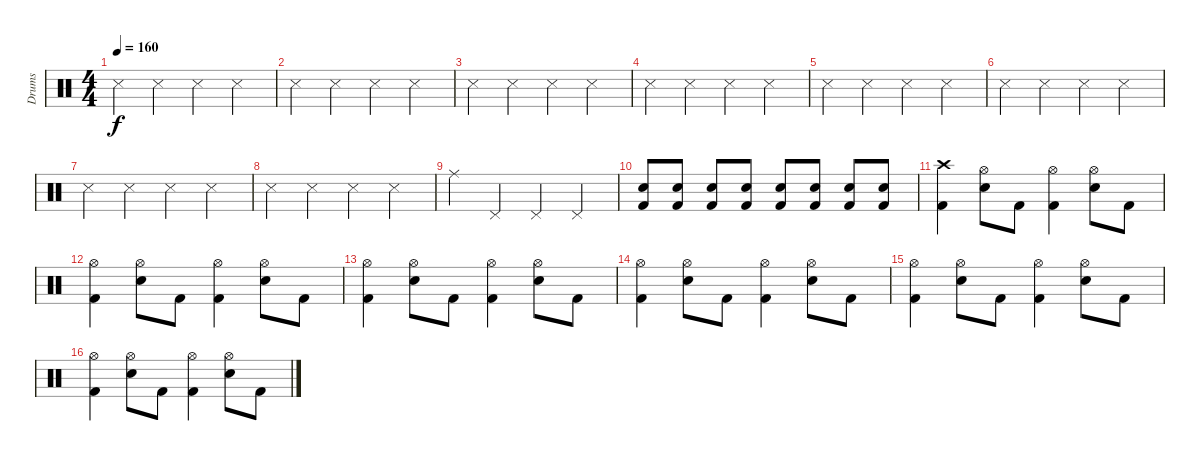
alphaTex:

\track ("Drums" "Drums") {instrument percussion}
\staff {score}
\articulation defaults
\ts (4 4)
\tempo 160
\clef neutral
\ks c "Snare (side stick) 3".4{dy f} "Metronome (hit)".4 "Snare (side stick) 3".4 "Metronome (hit)".4
|
"Snare (side stick) 3".4 "Metronome (hit)".4 "Snare (side stick) 3".4 "Metronome (hit)".4 |
"Snare (side stick) 3".4 "Metronome (hit)".4 "Snare (side stick) 3".4 "Metronome (hit)".4 |
"Snare (side stick) 3".4 "Metronome (hit)".4 "Snare (side stick) 3".4 "Metronome (hit)".4 |
"Snare (side stick) 3".4 "Metronome (hit)".4 "Snare (side stick) 3".4 "Metronome (hit)".4 |
"Snare (side stick) 3".4 "Metronome (hit)".4 "Snare (side stick) 3".4 "Metronome (hit)".4 |
"Snare (side stick) 3".4 "Metronome (hit)".4 "Snare (side stick) 3".4 "Metronome (hit)".4 |
"Snare (side stick) 3".4 "Metronome (hit)".4 "Snare (side stick) 3".4 "Metronome (hit)".4 |
"Ride (middle)".4 "Pedal Hi-Hat (hit)".4 "Pedal Hi-Hat (hit)".4 "Pedal Hi-Hat (hit)".4 |
("Electric Snare (hit)" "Kick (hit) 2").8 ("Electric Snare (hit)" "Kick (hit) 2").8 ("Electric Snare (hit)" "Kick (hit) 2").8 ("Electric Snare (hit)" "Kick (hit) 2").8 ("Electric Snare (hit)" "Kick (hit) 2").8 ("Electric Snare (hit)" "Kick (hit) 2").8 ("Electric Snare (hit)" "Kick (hit) 2").8 ("Electric Snare (hit)" "Kick (hit) 2").8 |
("Crash high (hit)" "Kick (hit) 2").4 ("Hi-Hat (open)" "Electric Snare (hit)").8 "Kick (hit) 2".8 ("Hi-Hat (open)" "Kick (hit) 2").4 ("Hi-Hat (open)" "Electric Snare (hit)").8 "Kick (hit) 2".8 |
("Hi-Hat (open)" "Kick (hit) 2").4 ("Hi-Hat (open)" "Electric Snare (hit)").8 "Kick (hit) 2".8 ("Hi-Hat (open)" "Kick (hit) 2").4 ("Hi-Hat (open)" "Electric Snare (hit)").8 "Kick (hit) 2".8 |
("Hi-Hat (open)" "Kick (hit) 2").4 ("Hi-Hat (open)" "Electric Snare (hit)").8 "Kick (hit) 2".8 ("Hi-Hat (open)" "Kick (hit) 2").4 ("Hi-Hat (open)" "Electric Snare (hit)").8 "Kick (hit) 2".8 |
("Hi-Hat (open)" "Kick (hit) 2").4 ("Hi-Hat (open)" "Electric Snare (hit)").8 "Kick (hit) 2".8 ("Hi-Hat (open)" "Kick (hit) 2").4 ("Hi-Hat (open)" "Electric Snare (hit)").8 "Kick (hit) 2".8 |
("Hi-Hat (open)" "Kick (hit) 2").4 ("Hi-Hat (open)" "Electric Snare (hit)").8 "Kick (hit) 2".8 ("Hi-Hat (open)" "Kick (hit) 2").4 ("Hi-Hat (open)" "Electric Snare (hit)").8 "Kick (hit) 2".8 |
("Hi-Hat (open)" "Kick (hit) 2").4 ("Hi-Hat (open)" "Electric Snare (hit)").8 "Kick (hit) 2".8 ("Hi-Hat (open)" "Kick (hit) 2").4 ("Hi-Hat (open)" "Electric Snare (hit)").8 "Kick (hit) 2".8
